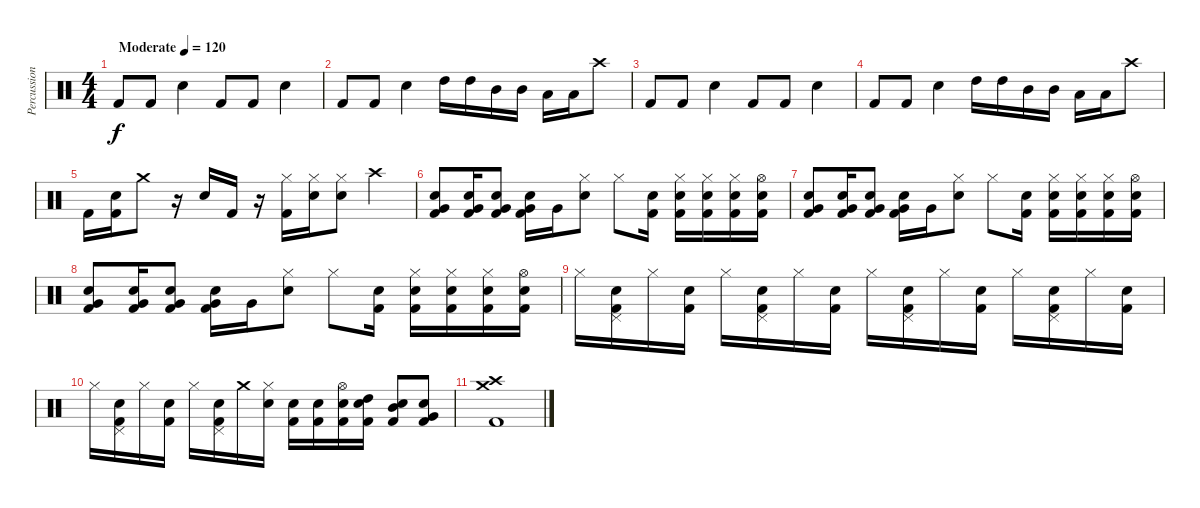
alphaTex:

\track ("Percussion" "Percussion") {instrument percussion}
\staff {score}
\articulation defaults
\ts (4 4)
\tempo (120 "Moderate")
\clef neutral
\ks c "Kick (hit) 2".8{dy f} "Kick (hit) 2".8 "Snare (hit) 2".4 "Kick (hit) 2".8 "Kick (hit) 2".8 "Snare (hit) 2".4
|
"Kick (hit) 2".8 "Kick (hit) 2".8 "Snare (hit) 2".4 "High Tom (hit)".16 "High Tom (hit)".16 "Mid Tom (hit)".16 "Mid Tom (hit)".16 "Low Tom (hit)".16 "Low Tom (hit)".16 "Crash high (hit)".8 |
"Kick (hit) 2".8 "Kick (hit) 2".8 "Snare (hit) 2".4 "Kick (hit) 2".8 "Kick (hit) 2".8 "Snare (hit) 2".4 |
"Kick (hit) 2".8 "Kick (hit) 2".8 "Snare (hit) 2".4 "High Tom (hit)".16 "High Tom (hit)".16 "Mid Tom (hit)".16 "Mid Tom (hit)".16 "Low Tom (hit)".16 "Low Tom (hit)".16 "Crash high (hit)".8 |
"Kick (hit) 2".16 ("Kick (hit) 2" "Snare (hit) 2").16 "Crash medium (hit)".8 r.16 "Snare (hit) 2".16 "Kick (hit) 2".16 r.16 ("Kick (hit) 2" "Hi-Hat (closed)").16 ("Snare (hit) 2" "Hi-Hat (closed)").16 ("Snare (hit) 2" "Hi-Hat (closed)").8 "Crash high (hit)".4 |
("Very Low Tom (hit)" "Kick (hit) 2" "Snare (hit) 2").8 ("Very Low Tom (hit)" "Kick (hit) 2" "Snare (hit) 2").16 ("Very Low Tom (hit)" "Kick (hit) 2" "Snare (hit) 2").8 ("Very Low Tom (hit)" "Kick (hit) 2" "Snare (hit) 2").16 "Very Low Tom (hit)".16 ("Hi-Hat (closed)" "Snare (hit) 2").8 "Hi-Hat (closed)".8 ("Snare (hit) 2" "Kick (hit) 2").16 ("Hi-Hat (closed)" "Snare (hit) 2" "Kick (hit) 2").16 ("Hi-Hat (closed)" "Snare (hit) 2" "Kick (hit) 2").16 ("Hi-Hat (closed)" "Snare (hit) 2" "Kick (hit) 2").16 ("Snare (hit) 2" "Kick (hit) 2" "Hi-Hat (open)").16 |
("Very Low Tom (hit)" "Kick (hit) 2" "Snare (hit) 2").8 ("Very Low Tom (hit)" "Kick (hit) 2" "Snare (hit) 2").16 ("Very Low Tom (hit)" "Kick (hit) 2" "Snare (hit) 2").8 ("Very Low Tom (hit)" "Kick (hit) 2" "Snare (hit) 2").16 "Very Low Tom (hit)".16 ("Hi-Hat (closed)" "Snare (hit) 2").8 "Hi-Hat (closed)".8 ("Snare (hit) 2" "Kick (hit) 2").16 ("Hi-Hat (closed)" "Snare (hit) 2" "Kick (hit) 2").16 ("Hi-Hat (closed)" "Snare (hit) 2" "Kick (hit) 2").16 ("Hi-Hat (closed)" "Snare (hit) 2" "Kick (hit) 2").16 ("Snare (hit) 2" "Kick (hit) 2" "Hi-Hat (open)").16 |
("Very Low Tom (hit)" "Kick (hit) 2" "Snare (hit) 2").8 ("Very Low Tom (hit)" "Kick (hit) 2" "Snare (hit) 2").16 ("Very Low Tom (hit)" "Kick (hit) 2" "Snare (hit) 2").8 ("Very Low Tom (hit)" "Kick (hit) 2" "Snare (hit) 2").16 "Very Low Tom (hit)".16 ("Hi-Hat (closed)" "Snare (hit) 2").8 "Hi-Hat (closed)".8 ("Snare (hit) 2" "Kick (hit) 2").16 ("Hi-Hat (closed)" "Snare (hit) 2" "Kick (hit) 2").16 ("Hi-Hat (closed)" "Snare (hit) 2" "Kick (hit) 2").16 ("Hi-Hat (closed)" "Snare (hit) 2" "Kick (hit) 2").16 ("Snare (hit) 2" "Kick (hit) 2" "Hi-Hat (open)").16 |
"Hi-Hat (closed)".16 ("Pedal Hi-Hat (hit)" "Kick (hit) 2" "Snare (hit) 2").16 "Hi-Hat (closed)".16 ("Snare (hit) 2" "Kick (hit) 2").16 "Hi-Hat (closed)".16 ("Pedal Hi-Hat (hit)" "Kick (hit) 2" "Snare (hit) 2").16 "Hi-Hat (closed)".16 ("Snare (hit) 2" "Kick (hit) 2").16 "Hi-Hat (closed)".16 ("Pedal Hi-Hat (hit)" "Kick (hit) 2" "Snare (hit) 2").16 "Hi-Hat (closed)".16 ("Snare (hit) 2" "Kick (hit) 2").16 "Hi-Hat (closed)".16 ("Pedal Hi-Hat (hit)" "Kick (hit) 2" "Snare (hit) 2").16 "Hi-Hat (closed)".16 ("Snare (hit) 2" "Kick (hit) 2").16 |
"Hi-Hat (closed)".16 ("Pedal Hi-Hat (hit)" "Kick (hit) 2" "Snare (hit) 2").16 "Hi-Hat (closed)".16 ("Snare (hit) 2" "Kick (hit) 2").16 "Hi-Hat (closed)".16 ("Pedal Hi-Hat (hit)" "Kick (hit) 2" "Snare (hit) 2").16 "Crash medium (hit)".16 ("Hi-Hat (closed)" "Snare (hit) 2").16 ("Snare (hit) 2" "Kick (hit) 2").16 ("Snare (hit) 2" "Kick (hit) 2").16 ("Snare (hit) 2" "Kick (hit) 2" "Hi-Hat (open)").16 ("High Tom (hit)" "Kick (hit) 2" "Snare (hit) 2").16 ("Mid Tom (hit)" "Kick (hit) 2" "Snare (hit) 2").8 ("Very Low Tom (hit)" "Kick (hit) 2" "Snare (hit) 2").8 |
("Crash high (hit)" "Crash medium (hit)" "Kick (hit) 2").1
